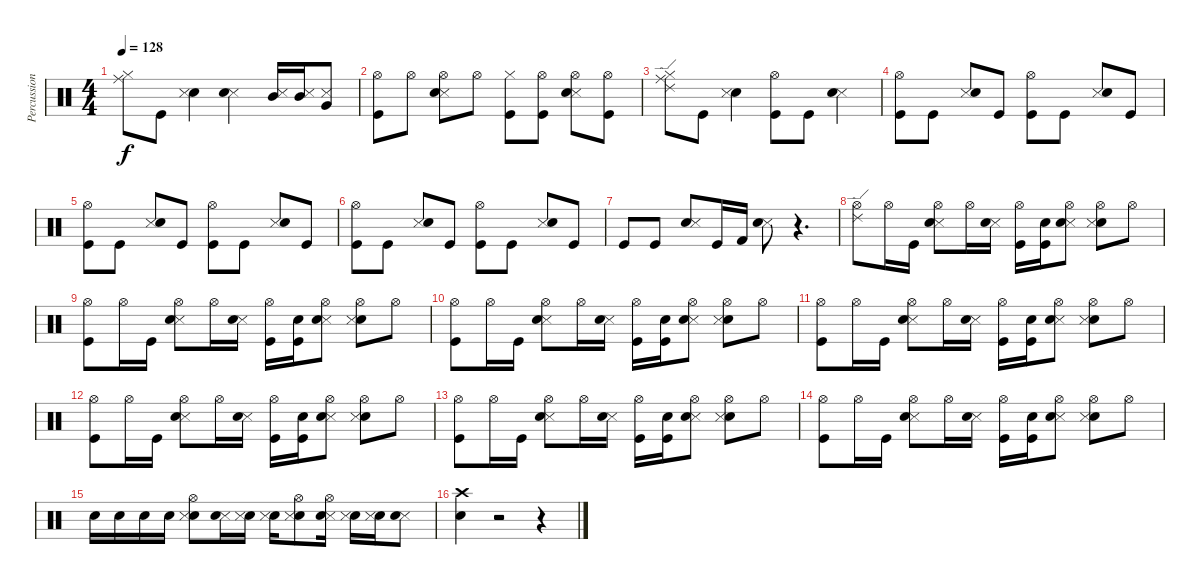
\track ("Percussion" "Percussion") {instrument percussion}
\staff {score}
\articulation defaults
\ts (4 4)
\tempo 128
\clef neutral
\ks c
("Ride (middle)" "Hi-Hat (closed)").8{dy f} "Kick (hit)".8 ("Electric Snare (hit)" "Snare (side stick) 3").4 ("Snare (side stick) 3" "Electric Snare (hit)").4 ("Snare (side stick) 3" "Mid Tom (hit)").16 ("Snare (side stick) 3" "Mid Tom (hit)").16 ("Snare (side stick) 3" "Very Low Tom (hit)").8 |
("Kick (hit)" "Hi-Hat (open)").8 "Hi-Hat (open)".8 ("Snare (side stick) 3" "Electric Snare (hit)" "Hi-Hat (open)").8 "Hi-Hat (open)".8 ("Hi-Hat (closed)" "Kick (hit)").8 ("Kick (hit)" "Hi-Hat (open)").8 ("Snare (side stick) 3" "Electric Snare (hit)" "Hi-Hat (open)").8 ("Kick (hit)" "Hi-Hat (open)").8 |
("Ride (edge) 2" "Ride (middle)" "Hi-Hat (closed)").8 "Kick (hit)".8 ("Electric Snare (hit)" "Snare (side stick) 3").4 ("Hi-Hat (open)" "Kick (hit)").8 "Kick (hit)".8 ("Snare (side stick) 3" "Electric Snare (hit)").4 |
("Hi-Hat (open)" "Kick (hit)").8 "Kick (hit)".8 ("Snare (side stick) 3" "Electric Snare (hit)").8 "Kick (hit)".8 ("Hi-Hat (open)" "Kick (hit)").8 "Kick (hit)".8 ("Snare (side stick) 3" "Electric Snare (hit)").8 "Kick (hit)".8 |
("Hi-Hat (open)" "Kick (hit)").8 "Kick (hit)".8 ("Snare (side stick) 3" "Electric Snare (hit)").8 "Kick (hit)".8 ("Hi-Hat (open)" "Kick (hit)").8 "Kick (hit)".8 ("Snare (side stick) 3" "Electric Snare (hit)").8 "Kick (hit)".8 |
("Hi-Hat (open)" "Kick (hit)").8 "Kick (hit)".8 ("Snare (side stick) 3" "Electric Snare (hit)").8 "Kick (hit)".8 ("Hi-Hat (open)" "Kick (hit)").8 "Kick (hit)".8 ("Snare (side stick) 3" "Electric Snare (hit)").8 "Kick (hit)".8 |
"Kick (hit)".8 "Kick (hit)".8 ("Electric Snare (hit)" "Snare (side stick) 3").8 "Kick (hit)".16 "Kick (hit) 2".16 ("Snare (side stick) 3" "Electric Snare (hit)").8 r.4{d} |
("Hi-Hat (open)" "Ride (edge) 2").8 "Hi-Hat (open)".16 "Kick (hit)".16 ("Snare (side stick) 3" "Electric Snare (hit)" "Hi-Hat (open)").8 "Hi-Hat (open)".16 ("Snare (side stick) 3" "Electric Snare (hit)").16 ("Kick (hit)" "Hi-Hat (open)").16 ("Kick (hit)" "Electric Snare (hit)").16 ("Snare (side stick) 3" "Electric Snare (hit)" "Hi-Hat (open)").8 ("Electric Snare (hit)" "Snare (side stick) 3" "Hi-Hat (open)").8 "Hi-Hat (open)".8 |
("Hi-Hat (open)" "Kick (hit)").8 "Hi-Hat (open)".16 "Kick (hit)".16 ("Snare (side stick) 3" "Electric Snare (hit)" "Hi-Hat (open)").8 "Hi-Hat (open)".16 ("Snare (side stick) 3" "Electric Snare (hit)").16 ("Kick (hit)" "Hi-Hat (open)").16 ("Kick (hit)" "Electric Snare (hit)").16 ("Snare (side stick) 3" "Electric Snare (hit)" "Hi-Hat (open)").8 ("Electric Snare (hit)" "Snare (side stick) 3" "Hi-Hat (open)").8 "Hi-Hat (open)".8 |
("Hi-Hat (open)" "Kick (hit)").8 "Hi-Hat (open)".16 "Kick (hit)".16 ("Snare (side stick) 3" "Electric Snare (hit)" "Hi-Hat (open)").8 "Hi-Hat (open)".16 ("Snare (side stick) 3" "Electric Snare (hit)").16 ("Kick (hit)" "Hi-Hat (open)").16 ("Kick (hit)" "Electric Snare (hit)").16 ("Snare (side stick) 3" "Electric Snare (hit)" "Hi-Hat (open)").8 ("Electric Snare (hit)" "Snare (side stick) 3" "Hi-Hat (open)").8 "Hi-Hat (open)".8 |
("Hi-Hat (open)" "Kick (hit)").8 "Hi-Hat (open)".16 "Kick (hit)".16 ("Snare (side stick) 3" "Electric Snare (hit)" "Hi-Hat (open)").8 "Hi-Hat (open)".16 ("Snare (side stick) 3" "Electric Snare (hit)").16 ("Kick (hit)" "Hi-Hat (open)").16 ("Kick (hit)" "Electric Snare (hit)").16 ("Snare (side stick) 3" "Electric Snare (hit)" "Hi-Hat (open)").8 ("Electric Snare (hit)" "Snare (side stick) 3" "Hi-Hat (open)").8 "Hi-Hat (open)".8 |
("Hi-Hat (open)" "Kick (hit)").8 "Hi-Hat (open)".16 "Kick (hit)".16 ("Snare (side stick) 3" "Electric Snare (hit)" "Hi-Hat (open)").8 "Hi-Hat (open)".16 ("Snare (side stick) 3" "Electric Snare (hit)").16 ("Kick (hit)" "Hi-Hat (open)").16 ("Kick (hit)" "Electric Snare (hit)").16 ("Snare (side stick) 3" "Electric Snare (hit)" "Hi-Hat (open)").8 ("Electric Snare (hit)" "Snare (side stick) 3" "Hi-Hat (open)").8 "Hi-Hat (open)".8 |
("Hi-Hat (open)" "Kick (hit)").8 "Hi-Hat (open)".16 "Kick (hit)".16 ("Snare (side stick) 3" "Electric Snare (hit)" "Hi-Hat (open)").8 "Hi-Hat (open)".16 ("Snare (side stick) 3" "Electric Snare (hit)").16 ("Kick (hit)" "Hi-Hat (open)").16 ("Kick (hit)" "Electric Snare (hit)").16 ("Snare (side stick) 3" "Electric Snare (hit)" "Hi-Hat (open)").8 ("Electric Snare (hit)" "Snare (side stick) 3" "Hi-Hat (open)").8 "Hi-Hat (open)".8 |
("Hi-Hat (open)" "Kick (hit)").8 "Hi-Hat (open)".16 "Kick (hit)".16 ("Snare (side stick) 3" "Electric Snare (hit)" "Hi-Hat (open)").8 "Hi-Hat (open)".16 ("Snare (side stick) 3" "Electric Snare (hit)").16 ("Kick (hit)" "Hi-Hat (open)").16 ("Kick (hit)" "Electric Snare (hit)").16 ("Snare (side stick) 3" "Electric Snare (hit)" "Hi-Hat (open)").8 ("Electric Snare (hit)" "Snare (side stick) 3" "Hi-Hat (open)").8 "Hi-Hat (open)".8 |
"Electric Snare (hit)".16 "Electric Snare (hit)".16 "Electric Snare (hit)".16 "Electric Snare (hit)".16 ("Electric Snare (hit)" "Snare (side stick) 3" "Hi-Hat (open)").8 ("Snare (side stick) 3" "Electric Snare (hit)").16 ("Electric Snare (hit)" "Snare (side stick) 3").16 ("Electric Snare (hit)" "Snare (side stick) 3").16 ("Electric Snare (hit)" "Snare (side stick) 3" "Hi-Hat (open)").8 ("Snare (side stick) 3" "Electric Snare (hit)" "Hi-Hat (open)").16 ("Electric Snare (hit)" "Snare (side stick) 3").16 ("Electric Snare (hit)" "Snare (side stick) 3").16 ("Snare (side stick) 3" "Electric Snare (hit)").8 |
("Electric Snare (hit)" "Crash high (hit)").4 r.2 r.4
